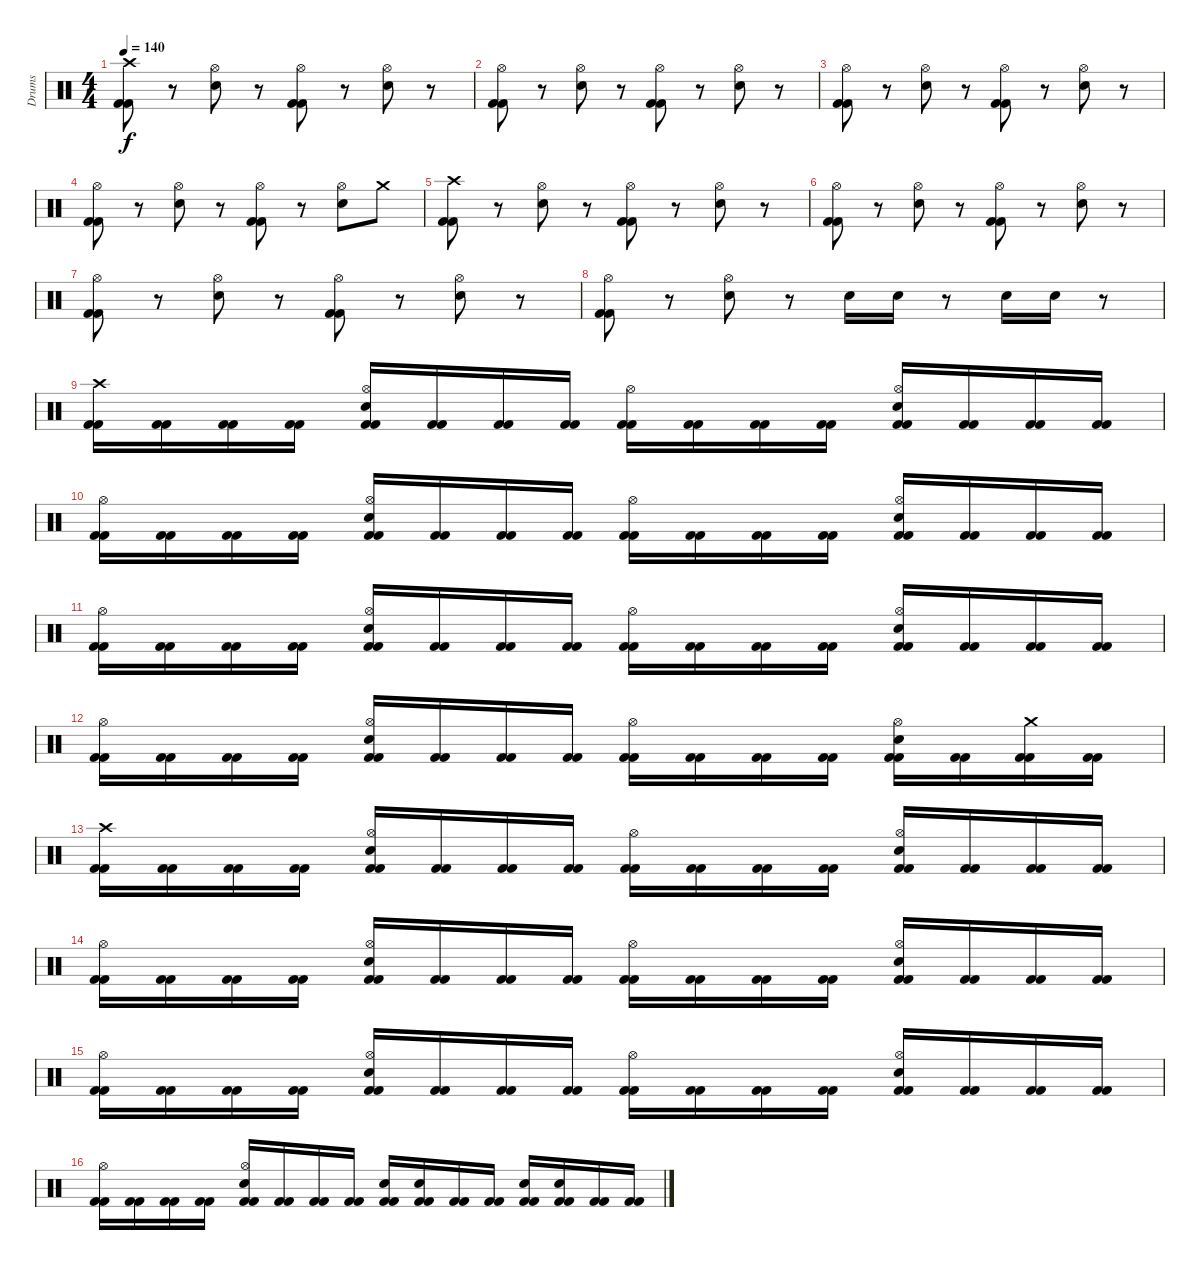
\track ("Drums" "Drums") {instrument percussion}
\staff {score}
\articulation defaults
\ts (4 4)
\tempo 140
\clef neutral
\ks c
("Crash high (hit)" "Kick (hit) 2" "Kick (hit) 2").8{dy f} r.8 ("Hi-Hat (open)" "Electric Snare (hit)").8 r.8 ("Hi-Hat (open)" "Kick (hit) 2" "Kick (hit) 2").8 r.8 ("Hi-Hat (open)" "Electric Snare (hit)").8 r.8 |
("Hi-Hat (open)" "Kick (hit) 2" "Kick (hit) 2").8 r.8 ("Hi-Hat (open)" "Electric Snare (hit)").8 r.8 ("Hi-Hat (open)" "Kick (hit) 2" "Kick (hit) 2").8 r.8 ("Hi-Hat (open)" "Electric Snare (hit)").8 r.8 |
("Hi-Hat (open)" "Kick (hit) 2" "Kick (hit) 2").8 r.8 ("Hi-Hat (open)" "Electric Snare (hit)").8 r.8 ("Hi-Hat (open)" "Kick (hit) 2" "Kick (hit) 2").8 r.8 ("Hi-Hat (open)" "Electric Snare (hit)").8 r.8 |
("Hi-Hat (open)" "Kick (hit) 2" "Kick (hit) 2").8 r.8 ("Hi-Hat (open)" "Electric Snare (hit)").8 r.8 ("Hi-Hat (open)" "Kick (hit) 2" "Kick (hit) 2").8 r.8 ("Hi-Hat (open)" "Electric Snare (hit)").8 "Crash medium (hit)".8 |
("Crash high (hit)" "Kick (hit) 2" "Kick (hit) 2").8 r.8 ("Hi-Hat (open)" "Electric Snare (hit)").8 r.8 ("Hi-Hat (open)" "Kick (hit) 2" "Kick (hit) 2").8 r.8 ("Hi-Hat (open)" "Electric Snare (hit)").8 r.8 |
("Hi-Hat (open)" "Kick (hit) 2" "Kick (hit) 2").8 r.8 ("Hi-Hat (open)" "Electric Snare (hit)").8 r.8 ("Hi-Hat (open)" "Kick (hit) 2" "Kick (hit) 2").8 r.8 ("Hi-Hat (open)" "Electric Snare (hit)").8 r.8 |
("Hi-Hat (open)" "Kick (hit) 2" "Kick (hit) 2").8 r.8 ("Hi-Hat (open)" "Electric Snare (hit)").8 r.8 ("Hi-Hat (open)" "Kick (hit) 2" "Kick (hit) 2").8 r.8 ("Hi-Hat (open)" "Electric Snare (hit)").8 r.8 |
("Hi-Hat (open)" "Kick (hit) 2" "Kick (hit) 2").8 r.8 ("Hi-Hat (open)" "Electric Snare (hit)").8 r.8 "Electric Snare (hit)".16 "Electric Snare (hit)".16 r.8 "Electric Snare (hit)".16 "Electric Snare (hit)".16 r.8 |
("Crash high (hit)" "Kick (hit) 2" "Kick (hit) 2").16 ("Kick (hit) 2" "Kick (hit) 2").16 ("Kick (hit) 2" "Kick (hit) 2").16 ("Kick (hit) 2" "Kick (hit) 2").16 ("Hi-Hat (open)" "Electric Snare (hit)" "Kick (hit) 2" "Kick (hit) 2").16 ("Kick (hit) 2" "Kick (hit) 2").16 ("Kick (hit) 2" "Kick (hit) 2").16 ("Kick (hit) 2" "Kick (hit) 2").16 ("Hi-Hat (open)" "Kick (hit) 2" "Kick (hit) 2").16 ("Kick (hit) 2" "Kick (hit) 2").16 ("Kick (hit) 2" "Kick (hit) 2").16 ("Kick (hit) 2" "Kick (hit) 2").16 ("Hi-Hat (open)" "Electric Snare (hit)" "Kick (hit) 2" "Kick (hit) 2").16 ("Kick (hit) 2" "Kick (hit) 2").16 ("Kick (hit) 2" "Kick (hit) 2").16 ("Kick (hit) 2" "Kick (hit) 2").16 |
("Hi-Hat (open)" "Kick (hit) 2" "Kick (hit) 2").16 ("Kick (hit) 2" "Kick (hit) 2").16 ("Kick (hit) 2" "Kick (hit) 2").16 ("Kick (hit) 2" "Kick (hit) 2").16 ("Hi-Hat (open)" "Electric Snare (hit)" "Kick (hit) 2" "Kick (hit) 2").16 ("Kick (hit) 2" "Kick (hit) 2").16 ("Kick (hit) 2" "Kick (hit) 2").16 ("Kick (hit) 2" "Kick (hit) 2").16 ("Hi-Hat (open)" "Kick (hit) 2" "Kick (hit) 2").16 ("Kick (hit) 2" "Kick (hit) 2").16 ("Kick (hit) 2" "Kick (hit) 2").16 ("Kick (hit) 2" "Kick (hit) 2").16 ("Hi-Hat (open)" "Electric Snare (hit)" "Kick (hit) 2" "Kick (hit) 2").16 ("Kick (hit) 2" "Kick (hit) 2").16 ("Kick (hit) 2" "Kick (hit) 2").16 ("Kick (hit) 2" "Kick (hit) 2").16 |
("Hi-Hat (open)" "Kick (hit) 2" "Kick (hit) 2").16 ("Kick (hit) 2" "Kick (hit) 2").16 ("Kick (hit) 2" "Kick (hit) 2").16 ("Kick (hit) 2" "Kick (hit) 2").16 ("Hi-Hat (open)" "Electric Snare (hit)" "Kick (hit) 2" "Kick (hit) 2").16 ("Kick (hit) 2" "Kick (hit) 2").16 ("Kick (hit) 2" "Kick (hit) 2").16 ("Kick (hit) 2" "Kick (hit) 2").16 ("Hi-Hat (open)" "Kick (hit) 2" "Kick (hit) 2").16 ("Kick (hit) 2" "Kick (hit) 2").16 ("Kick (hit) 2" "Kick (hit) 2").16 ("Kick (hit) 2" "Kick (hit) 2").16 ("Hi-Hat (open)" "Electric Snare (hit)" "Kick (hit) 2" "Kick (hit) 2").16 ("Kick (hit) 2" "Kick (hit) 2").16 ("Kick (hit) 2" "Kick (hit) 2").16 ("Kick (hit) 2" "Kick (hit) 2").16 |
("Hi-Hat (open)" "Kick (hit) 2" "Kick (hit) 2").16 ("Kick (hit) 2" "Kick (hit) 2").16 ("Kick (hit) 2" "Kick (hit) 2").16 ("Kick (hit) 2" "Kick (hit) 2").16 ("Hi-Hat (open)" "Electric Snare (hit)" "Kick (hit) 2" "Kick (hit) 2").16 ("Kick (hit) 2" "Kick (hit) 2").16 ("Kick (hit) 2" "Kick (hit) 2").16 ("Kick (hit) 2" "Kick (hit) 2").16 ("Hi-Hat (open)" "Kick (hit) 2" "Kick (hit) 2").16 ("Kick (hit) 2" "Kick (hit) 2").16 ("Kick (hit) 2" "Kick (hit) 2").16 ("Kick (hit) 2" "Kick (hit) 2").16 ("Hi-Hat (open)" "Electric Snare (hit)" "Kick (hit) 2" "Kick (hit) 2").16 ("Kick (hit) 2" "Kick (hit) 2").16 ("Crash medium (hit)" "Kick (hit) 2" "Kick (hit) 2").16 ("Kick (hit) 2" "Kick (hit) 2").16 |
("Crash high (hit)" "Kick (hit) 2" "Kick (hit) 2").16 ("Kick (hit) 2" "Kick (hit) 2").16 ("Kick (hit) 2" "Kick (hit) 2").16 ("Kick (hit) 2" "Kick (hit) 2").16 ("Hi-Hat (open)" "Electric Snare (hit)" "Kick (hit) 2" "Kick (hit) 2").16 ("Kick (hit) 2" "Kick (hit) 2").16 ("Kick (hit) 2" "Kick (hit) 2").16 ("Kick (hit) 2" "Kick (hit) 2").16 ("Hi-Hat (open)" "Kick (hit) 2" "Kick (hit) 2").16 ("Kick (hit) 2" "Kick (hit) 2").16 ("Kick (hit) 2" "Kick (hit) 2").16 ("Kick (hit) 2" "Kick (hit) 2").16 ("Hi-Hat (open)" "Electric Snare (hit)" "Kick (hit) 2" "Kick (hit) 2").16 ("Kick (hit) 2" "Kick (hit) 2").16 ("Kick (hit) 2" "Kick (hit) 2").16 ("Kick (hit) 2" "Kick (hit) 2").16 |
("Hi-Hat (open)" "Kick (hit) 2" "Kick (hit) 2").16 ("Kick (hit) 2" "Kick (hit) 2").16 ("Kick (hit) 2" "Kick (hit) 2").16 ("Kick (hit) 2" "Kick (hit) 2").16 ("Hi-Hat (open)" "Electric Snare (hit)" "Kick (hit) 2" "Kick (hit) 2").16 ("Kick (hit) 2" "Kick (hit) 2").16 ("Kick (hit) 2" "Kick (hit) 2").16 ("Kick (hit) 2" "Kick (hit) 2").16 ("Hi-Hat (open)" "Kick (hit) 2" "Kick (hit) 2").16 ("Kick (hit) 2" "Kick (hit) 2").16 ("Kick (hit) 2" "Kick (hit) 2").16 ("Kick (hit) 2" "Kick (hit) 2").16 ("Hi-Hat (open)" "Electric Snare (hit)" "Kick (hit) 2" "Kick (hit) 2").16 ("Kick (hit) 2" "Kick (hit) 2").16 ("Kick (hit) 2" "Kick (hit) 2").16 ("Kick (hit) 2" "Kick (hit) 2").16 |
("Hi-Hat (open)" "Kick (hit) 2" "Kick (hit) 2").16 ("Kick (hit) 2" "Kick (hit) 2").16 ("Kick (hit) 2" "Kick (hit) 2").16 ("Kick (hit) 2" "Kick (hit) 2").16 ("Hi-Hat (open)" "Electric Snare (hit)" "Kick (hit) 2" "Kick (hit) 2").16 ("Kick (hit) 2" "Kick (hit) 2").16 ("Kick (hit) 2" "Kick (hit) 2").16 ("Kick (hit) 2" "Kick (hit) 2").16 ("Hi-Hat (open)" "Kick (hit) 2" "Kick (hit) 2").16 ("Kick (hit) 2" "Kick (hit) 2").16 ("Kick (hit) 2" "Kick (hit) 2").16 ("Kick (hit) 2" "Kick (hit) 2").16 ("Hi-Hat (open)" "Electric Snare (hit)" "Kick (hit) 2" "Kick (hit) 2").16 ("Kick (hit) 2" "Kick (hit) 2").16 ("Kick (hit) 2" "Kick (hit) 2").16 ("Kick (hit) 2" "Kick (hit) 2").16 |
("Hi-Hat (open)" "Kick (hit) 2" "Kick (hit) 2").16 ("Kick (hit) 2" "Kick (hit) 2").16 ("Kick (hit) 2" "Kick (hit) 2").16 ("Kick (hit) 2" "Kick (hit) 2").16 ("Hi-Hat (open)" "Electric Snare (hit)" "Kick (hit) 2" "Kick (hit) 2").16 ("Kick (hit) 2" "Kick (hit) 2").16 ("Kick (hit) 2" "Kick (hit) 2").16 ("Kick (hit) 2" "Kick (hit) 2").16 ("Electric Snare (hit)" "Kick (hit) 2" "Kick (hit) 2").16 ("Electric Snare (hit)" "Kick (hit) 2" "Kick (hit) 2").16 ("Kick (hit) 2" "Kick (hit) 2").16 ("Kick (hit) 2" "Kick (hit) 2").16 ("Electric Snare (hit)" "Kick (hit) 2" "Kick (hit) 2").16 ("Electric Snare (hit)" "Kick (hit) 2" "Kick (hit) 2").16 ("Kick (hit) 2" "Kick (hit) 2").16 ("Kick (hit) 2" "Kick (hit) 2").16
